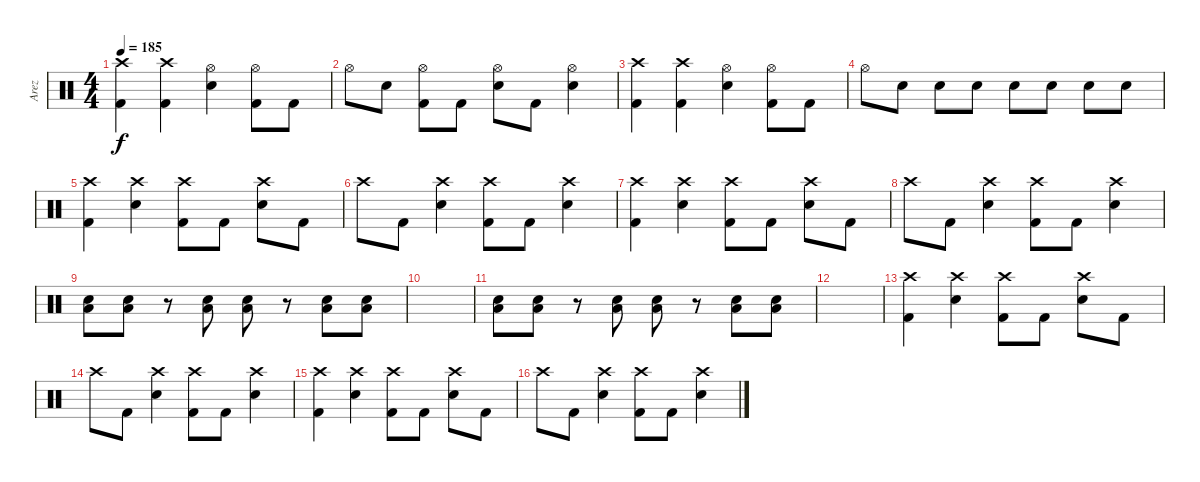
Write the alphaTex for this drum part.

\track ("Arez" "Arez") {instrument percussion}
\staff {score}
\articulation defaults
\ts (4 4)
\tempo 185
\clef neutral
\ks c
("Crash high (hit)" "Kick (hit) 2").4{dy f} ("Crash high (hit)" "Kick (hit) 2").4 ("Electric Snare (hit)" "Hi-Hat (open)").4 ("Kick (hit) 2" "Hi-Hat (open)").8 "Kick (hit) 2".8 |
"Hi-Hat (open)".8 "Electric Snare (hit)".8 ("Kick (hit) 2" "Hi-Hat (open)").8 "Kick (hit) 2".8 ("Electric Snare (hit)" "Hi-Hat (open)").8 "Kick (hit) 2".8 ("Hi-Hat (open)" "Electric Snare (hit)").4 |
("Crash high (hit)" "Kick (hit) 2").4 ("Crash high (hit)" "Kick (hit) 2").4 ("Electric Snare (hit)" "Hi-Hat (open)").4 ("Kick (hit) 2" "Hi-Hat (open)").8 "Kick (hit) 2".8 |
"Hi-Hat (open)".8 "Electric Snare (hit)".8 "Electric Snare (hit)".8 "Electric Snare (hit)".8 "Electric Snare (hit)".8 "Electric Snare (hit)".8 "Electric Snare (hit)".8 "Electric Snare (hit)".8 |
("Crash high (hit)" "Kick (hit) 2").4 ("Crash high (hit)" "Electric Snare (hit)").4 ("Crash high (hit)" "Kick (hit) 2").8 "Kick (hit) 2".8 ("Crash high (hit)" "Electric Snare (hit)").8 "Kick (hit) 2".8 |
"Crash high (hit)".8 "Kick (hit) 2".8 ("Electric Snare (hit)" "Crash high (hit)").4 ("Kick (hit) 2" "Crash high (hit)").8 "Kick (hit) 2".8 ("Electric Snare (hit)" "Crash high (hit)").4 |
("Crash high (hit)" "Kick (hit) 2").4 ("Crash high (hit)" "Electric Snare (hit)").4 ("Crash high (hit)" "Kick (hit) 2").8 "Kick (hit) 2".8 ("Crash high (hit)" "Electric Snare (hit)").8 "Kick (hit) 2".8 |
"Crash high (hit)".8 "Kick (hit) 2".8 ("Electric Snare (hit)" "Crash high (hit)").4 ("Kick (hit) 2" "Crash high (hit)").8 "Kick (hit) 2".8 ("Electric Snare (hit)" "Crash high (hit)").4 |
("Electric Snare (hit)" "Low Floor Tom (hit)").8 ("Electric Snare (hit)" "Low Floor Tom (hit)").8 r.8 ("Electric Snare (hit)" "Low Floor Tom (hit)").8 ("Electric Snare (hit)" "Low Floor Tom (hit)").8 r.8 ("Electric Snare (hit)" "Low Floor Tom (hit)").8 ("Electric Snare (hit)" "Low Floor Tom (hit)").8 |
|
("Electric Snare (hit)" "Low Floor Tom (hit)").8 ("Electric Snare (hit)" "Low Floor Tom (hit)").8 r.8 ("Electric Snare (hit)" "Low Floor Tom (hit)").8 ("Electric Snare (hit)" "Low Floor Tom (hit)").8 r.8 ("Electric Snare (hit)" "Low Floor Tom (hit)").8 ("Electric Snare (hit)" "Low Floor Tom (hit)").8 |
|
("Crash high (hit)" "Kick (hit) 2").4 ("Crash high (hit)" "Electric Snare (hit)").4 ("Crash high (hit)" "Kick (hit) 2").8 "Kick (hit) 2".8 ("Crash high (hit)" "Electric Snare (hit)").8 "Kick (hit) 2".8 |
"Crash high (hit)".8 "Kick (hit) 2".8 ("Electric Snare (hit)" "Crash high (hit)").4 ("Kick (hit) 2" "Crash high (hit)").8 "Kick (hit) 2".8 ("Electric Snare (hit)" "Crash high (hit)").4 |
("Crash high (hit)" "Kick (hit) 2").4 ("Crash high (hit)" "Electric Snare (hit)").4 ("Crash high (hit)" "Kick (hit) 2").8 "Kick (hit) 2".8 ("Crash high (hit)" "Electric Snare (hit)").8 "Kick (hit) 2".8 |
"Crash high (hit)".8 "Kick (hit) 2".8 ("Electric Snare (hit)" "Crash high (hit)").4 ("Kick (hit) 2" "Crash high (hit)").8 "Kick (hit) 2".8 ("Electric Snare (hit)" "Crash high (hit)").4
